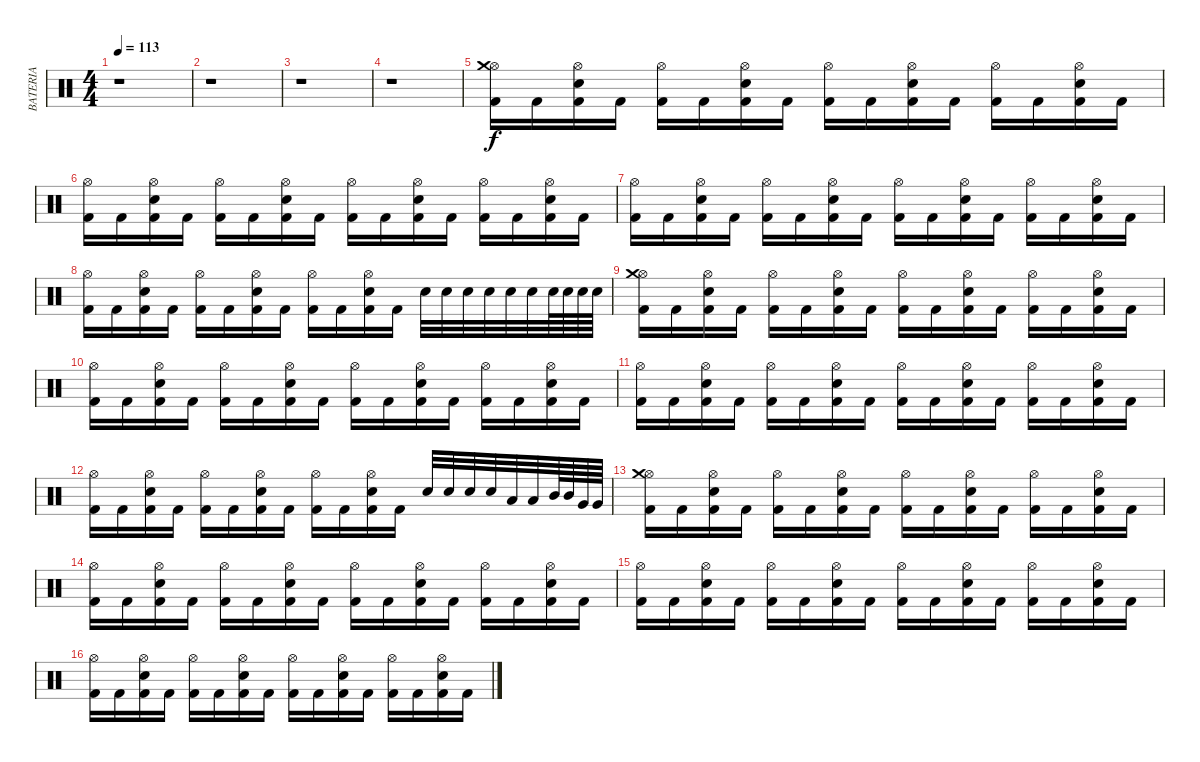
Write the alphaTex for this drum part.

\track ("BATERIA" "BATERIA") {instrument percussion}
\staff {score}
\articulation defaults
\ts (4 4)
\tempo 113
\clef neutral
\ks c
r.1{dy f} |
r.1 |
r.1 |
r.1 |
("Hi-Hat (open)" "Kick (hit) 2" "Crash medium (hit)").16 "Kick (hit) 2".16 ("Hi-Hat (open)" "Electric Snare (hit)" "Kick (hit) 2").16 "Kick (hit) 2".16 ("Hi-Hat (open)" "Kick (hit) 2").16 "Kick (hit) 2".16 ("Hi-Hat (open)" "Electric Snare (hit)" "Kick (hit) 2").16 "Kick (hit) 2".16 ("Hi-Hat (open)" "Kick (hit) 2").16 "Kick (hit) 2".16 ("Hi-Hat (open)" "Electric Snare (hit)" "Kick (hit) 2").16 "Kick (hit) 2".16 ("Hi-Hat (open)" "Kick (hit) 2").16 "Kick (hit) 2".16 ("Hi-Hat (open)" "Electric Snare (hit)" "Kick (hit) 2").16 "Kick (hit) 2".16 |
("Hi-Hat (open)" "Kick (hit) 2").16 "Kick (hit) 2".16 ("Hi-Hat (open)" "Electric Snare (hit)" "Kick (hit) 2").16 "Kick (hit) 2".16 ("Hi-Hat (open)" "Kick (hit) 2").16 "Kick (hit) 2".16 ("Hi-Hat (open)" "Electric Snare (hit)" "Kick (hit) 2").16 "Kick (hit) 2".16 ("Hi-Hat (open)" "Kick (hit) 2").16 "Kick (hit) 2".16 ("Hi-Hat (open)" "Electric Snare (hit)" "Kick (hit) 2").16 "Kick (hit) 2".16 ("Hi-Hat (open)" "Kick (hit) 2").16 "Kick (hit) 2".16 ("Hi-Hat (open)" "Electric Snare (hit)" "Kick (hit) 2").16 "Kick (hit) 2".16 |
("Hi-Hat (open)" "Kick (hit) 2").16 "Kick (hit) 2".16 ("Hi-Hat (open)" "Electric Snare (hit)" "Kick (hit) 2").16 "Kick (hit) 2".16 ("Hi-Hat (open)" "Kick (hit) 2").16 "Kick (hit) 2".16 ("Hi-Hat (open)" "Electric Snare (hit)" "Kick (hit) 2").16 "Kick (hit) 2".16 ("Hi-Hat (open)" "Kick (hit) 2").16 "Kick (hit) 2".16 ("Hi-Hat (open)" "Electric Snare (hit)" "Kick (hit) 2").16 "Kick (hit) 2".16 ("Hi-Hat (open)" "Kick (hit) 2").16 "Kick (hit) 2".16 ("Hi-Hat (open)" "Electric Snare (hit)" "Kick (hit) 2").16 "Kick (hit) 2".16 |
("Hi-Hat (open)" "Kick (hit) 2").16 "Kick (hit) 2".16 ("Hi-Hat (open)" "Electric Snare (hit)" "Kick (hit) 2").16 "Kick (hit) 2".16 ("Hi-Hat (open)" "Kick (hit) 2").16 "Kick (hit) 2".16 ("Hi-Hat (open)" "Electric Snare (hit)" "Kick (hit) 2").16 "Kick (hit) 2".16 ("Hi-Hat (open)" "Kick (hit) 2").16 "Kick (hit) 2".16 ("Hi-Hat (open)" "Electric Snare (hit)" "Kick (hit) 2").16 "Kick (hit) 2".16 "Electric Snare (hit)".32 "Electric Snare (hit)".32 "Electric Snare (hit)".32 "Electric Snare (hit)".32 "Electric Snare (hit)".32 "Electric Snare (hit)".32 "Electric Snare (hit)".64 "Electric Snare (hit)".64 "Electric Snare (hit)".64 "Electric Snare (hit)".64 |
("Hi-Hat (open)" "Kick (hit) 2" "Crash medium (hit)").16 "Kick (hit) 2".16 ("Hi-Hat (open)" "Electric Snare (hit)" "Kick (hit) 2").16 "Kick (hit) 2".16 ("Hi-Hat (open)" "Kick (hit) 2").16 "Kick (hit) 2".16 ("Hi-Hat (open)" "Electric Snare (hit)" "Kick (hit) 2").16 "Kick (hit) 2".16 ("Hi-Hat (open)" "Kick (hit) 2").16 "Kick (hit) 2".16 ("Hi-Hat (open)" "Electric Snare (hit)" "Kick (hit) 2").16 "Kick (hit) 2".16 ("Hi-Hat (open)" "Kick (hit) 2").16 "Kick (hit) 2".16 ("Hi-Hat (open)" "Electric Snare (hit)" "Kick (hit) 2").16 "Kick (hit) 2".16 |
("Hi-Hat (open)" "Kick (hit) 2").16 "Kick (hit) 2".16 ("Hi-Hat (open)" "Electric Snare (hit)" "Kick (hit) 2").16 "Kick (hit) 2".16 ("Hi-Hat (open)" "Kick (hit) 2").16 "Kick (hit) 2".16 ("Hi-Hat (open)" "Electric Snare (hit)" "Kick (hit) 2").16 "Kick (hit) 2".16 ("Hi-Hat (open)" "Kick (hit) 2").16 "Kick (hit) 2".16 ("Hi-Hat (open)" "Electric Snare (hit)" "Kick (hit) 2").16 "Kick (hit) 2".16 ("Hi-Hat (open)" "Kick (hit) 2").16 "Kick (hit) 2".16 ("Hi-Hat (open)" "Electric Snare (hit)" "Kick (hit) 2").16 "Kick (hit) 2".16 |
("Hi-Hat (open)" "Kick (hit) 2").16 "Kick (hit) 2".16 ("Hi-Hat (open)" "Electric Snare (hit)" "Kick (hit) 2").16 "Kick (hit) 2".16 ("Hi-Hat (open)" "Kick (hit) 2").16 "Kick (hit) 2".16 ("Hi-Hat (open)" "Electric Snare (hit)" "Kick (hit) 2").16 "Kick (hit) 2".16 ("Hi-Hat (open)" "Kick (hit) 2").16 "Kick (hit) 2".16 ("Hi-Hat (open)" "Electric Snare (hit)" "Kick (hit) 2").16 "Kick (hit) 2".16 ("Hi-Hat (open)" "Kick (hit) 2").16 "Kick (hit) 2".16 ("Hi-Hat (open)" "Electric Snare (hit)" "Kick (hit) 2").16 "Kick (hit) 2".16 |
("Hi-Hat (open)" "Kick (hit) 2").16 "Kick (hit) 2".16 ("Hi-Hat (open)" "Electric Snare (hit)" "Kick (hit) 2").16 "Kick (hit) 2".16 ("Hi-Hat (open)" "Kick (hit) 2").16 "Kick (hit) 2".16 ("Hi-Hat (open)" "Electric Snare (hit)" "Kick (hit) 2").16 "Kick (hit) 2".16 ("Hi-Hat (open)" "Kick (hit) 2").16 "Kick (hit) 2".16 ("Hi-Hat (open)" "Electric Snare (hit)" "Kick (hit) 2").16 "Kick (hit) 2".16 "Electric Snare (hit)".32 "Electric Snare (hit)".32 "Electric Snare (hit)".32 "Electric Snare (hit)".32 "Low Tom (hit)".32 "Low Tom (hit)".32 "Mid Tom (hit)".64 "Mid Tom (hit)".64 "Very Low Tom (hit)".64 "Very Low Tom (hit)".64 |
("Hi-Hat (open)" "Kick (hit) 2" "Crash medium (hit)").16 "Kick (hit) 2".16 ("Hi-Hat (open)" "Electric Snare (hit)" "Kick (hit) 2").16 "Kick (hit) 2".16 ("Hi-Hat (open)" "Kick (hit) 2").16 "Kick (hit) 2".16 ("Hi-Hat (open)" "Electric Snare (hit)" "Kick (hit) 2").16 "Kick (hit) 2".16 ("Hi-Hat (open)" "Kick (hit) 2").16 "Kick (hit) 2".16 ("Hi-Hat (open)" "Electric Snare (hit)" "Kick (hit) 2").16 "Kick (hit) 2".16 ("Hi-Hat (open)" "Kick (hit) 2").16 "Kick (hit) 2".16 ("Hi-Hat (open)" "Electric Snare (hit)" "Kick (hit) 2").16 "Kick (hit) 2".16 |
("Hi-Hat (open)" "Kick (hit) 2").16 "Kick (hit) 2".16 ("Hi-Hat (open)" "Electric Snare (hit)" "Kick (hit) 2").16 "Kick (hit) 2".16 ("Hi-Hat (open)" "Kick (hit) 2").16 "Kick (hit) 2".16 ("Hi-Hat (open)" "Electric Snare (hit)" "Kick (hit) 2").16 "Kick (hit) 2".16 ("Hi-Hat (open)" "Kick (hit) 2").16 "Kick (hit) 2".16 ("Hi-Hat (open)" "Electric Snare (hit)" "Kick (hit) 2").16 "Kick (hit) 2".16 ("Hi-Hat (open)" "Kick (hit) 2").16 "Kick (hit) 2".16 ("Hi-Hat (open)" "Electric Snare (hit)" "Kick (hit) 2").16 "Kick (hit) 2".16 |
("Hi-Hat (open)" "Kick (hit) 2").16 "Kick (hit) 2".16 ("Hi-Hat (open)" "Electric Snare (hit)" "Kick (hit) 2").16 "Kick (hit) 2".16 ("Hi-Hat (open)" "Kick (hit) 2").16 "Kick (hit) 2".16 ("Hi-Hat (open)" "Electric Snare (hit)" "Kick (hit) 2").16 "Kick (hit) 2".16 ("Hi-Hat (open)" "Kick (hit) 2").16 "Kick (hit) 2".16 ("Hi-Hat (open)" "Electric Snare (hit)" "Kick (hit) 2").16 "Kick (hit) 2".16 ("Hi-Hat (open)" "Kick (hit) 2").16 "Kick (hit) 2".16 ("Hi-Hat (open)" "Electric Snare (hit)" "Kick (hit) 2").16 "Kick (hit) 2".16 |
("Hi-Hat (open)" "Kick (hit) 2").16 "Kick (hit) 2".16 ("Hi-Hat (open)" "Electric Snare (hit)" "Kick (hit) 2").16 "Kick (hit) 2".16 ("Hi-Hat (open)" "Kick (hit) 2").16 "Kick (hit) 2".16 ("Hi-Hat (open)" "Electric Snare (hit)" "Kick (hit) 2").16 "Kick (hit) 2".16 ("Hi-Hat (open)" "Kick (hit) 2").16 "Kick (hit) 2".16 ("Hi-Hat (open)" "Electric Snare (hit)" "Kick (hit) 2").16 "Kick (hit) 2".16 ("Hi-Hat (open)" "Kick (hit) 2").16 "Kick (hit) 2".16 ("Hi-Hat (open)" "Electric Snare (hit)" "Kick (hit) 2").16 "Kick (hit) 2".16
